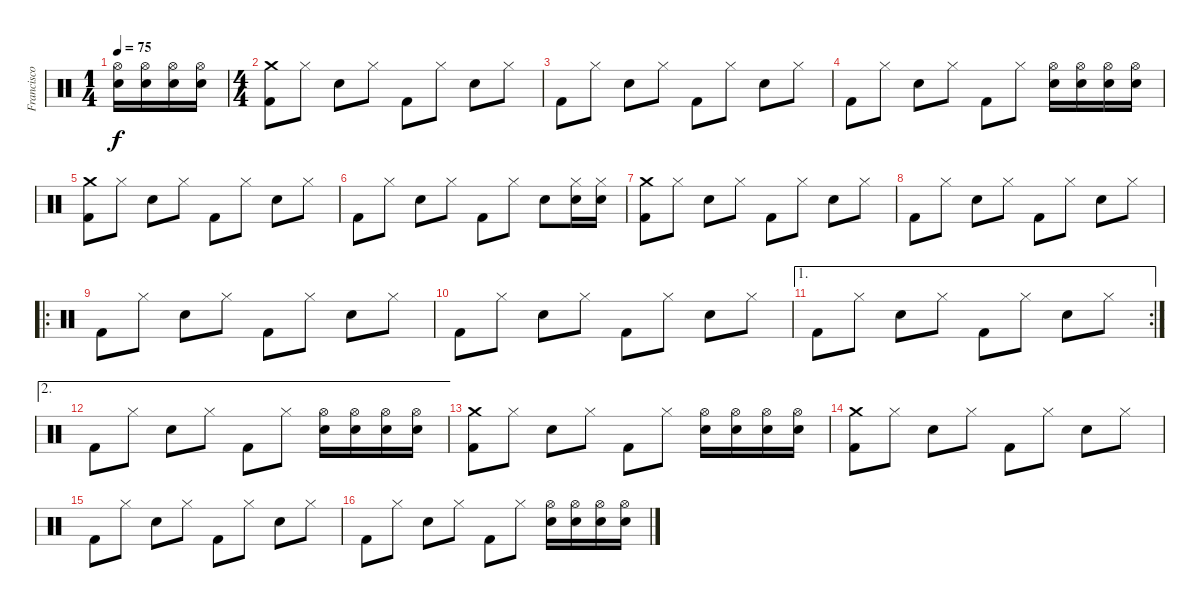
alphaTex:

\track ("Francisco (batería)" "Francisco ") {instrument percussion}
\staff {score}
\articulation defaults
\ts (1 4)
\tempo 75
\clef neutral
\ks c
("Hi-Hat (open)" "Snare (hit) 2").16{dy f} ("Hi-Hat (open)" "Snare (hit) 2").16 ("Hi-Hat (open)" "Snare (hit) 2").16 ("Hi-Hat (open)" "Snare (hit) 2").16 |
\ts (4 4)
("Crash medium (hit)" "Kick (hit) 2").8 "Hi-Hat (closed)".8 "Snare (hit) 2".8 "Hi-Hat (closed)".8 "Kick (hit) 2".8 "Hi-Hat (closed)".8 "Snare (hit) 2".8 "Hi-Hat (closed)".8 |
"Kick (hit) 2".8 "Hi-Hat (closed)".8 "Snare (hit) 2".8 "Hi-Hat (closed)".8 "Kick (hit) 2".8 "Hi-Hat (closed)".8 "Snare (hit) 2".8 "Hi-Hat (closed)".8 |
"Kick (hit) 2".8 "Hi-Hat (closed)".8 "Snare (hit) 2".8 "Hi-Hat (closed)".8 "Kick (hit) 2".8 "Hi-Hat (closed)".8 ("Hi-Hat (open)" "Snare (hit) 2").16 ("Hi-Hat (open)" "Snare (hit) 2").16 ("Hi-Hat (open)" "Snare (hit) 2").16 ("Hi-Hat (open)" "Snare (hit) 2").16 |
("Crash medium (hit)" "Kick (hit) 2").8 "Hi-Hat (closed)".8 "Snare (hit) 2".8 "Hi-Hat (closed)".8 "Kick (hit) 2".8 "Hi-Hat (closed)".8 "Snare (hit) 2".8 "Hi-Hat (closed)".8 |
"Kick (hit) 2".8 "Hi-Hat (closed)".8 "Snare (hit) 2".8 "Hi-Hat (closed)".8 "Kick (hit) 2".8 "Hi-Hat (closed)".8 "Snare (hit) 2".8 ("Hi-Hat (closed)" "Snare (hit) 2").16 ("Hi-Hat (closed)" "Snare (hit) 2").16 |
("Crash medium (hit)" "Kick (hit) 2").8 "Hi-Hat (closed)".8 "Snare (hit) 2".8 "Hi-Hat (closed)".8 "Kick (hit) 2".8 "Hi-Hat (closed)".8 "Snare (hit) 2".8 "Hi-Hat (closed)".8 |
"Kick (hit) 2".8 "Hi-Hat (closed)".8 "Snare (hit) 2".8 "Hi-Hat (closed)".8 "Kick (hit) 2".8 "Hi-Hat (closed)".8 "Snare (hit) 2".8 "Hi-Hat (closed)".8 |
\ro "Kick (hit) 2".8 "Hi-Hat (closed)".8 "Snare (hit) 2".8 "Hi-Hat (closed)".8 "Kick (hit) 2".8 "Hi-Hat (closed)".8 "Snare (hit) 2".8 "Hi-Hat (closed)".8
|
"Kick (hit) 2".8 "Hi-Hat (closed)".8 "Snare (hit) 2".8 "Hi-Hat (closed)".8 "Kick (hit) 2".8 "Hi-Hat (closed)".8 "Snare (hit) 2".8 "Hi-Hat (closed)".8 |
\ae 1
\rc 2 "Kick (hit) 2".8 "Hi-Hat (closed)".8 "Snare (hit) 2".8 "Hi-Hat (closed)".8 "Kick (hit) 2".8 "Hi-Hat (closed)".8 "Snare (hit) 2".8 "Hi-Hat (closed)".8
|
\ae 2 "Kick (hit) 2".8 "Hi-Hat (closed)".8 "Snare (hit) 2".8 "Hi-Hat (closed)".8 "Kick (hit) 2".8 "Hi-Hat (closed)".8
("Hi-Hat (open)" "Snare (hit) 2").16 ("Hi-Hat (open)" "Snare (hit) 2").16 ("Hi-Hat (open)" "Snare (hit) 2").16 ("Hi-Hat (open)" "Snare (hit) 2").16 |
("Crash medium (hit)" "Kick (hit) 2").8 "Hi-Hat (closed)".8 "Snare (hit) 2".8 "Hi-Hat (closed)".8 "Kick (hit) 2".8 "Hi-Hat (closed)".8 ("Hi-Hat (open)" "Snare (hit) 2").16 ("Hi-Hat (open)" "Snare (hit) 2").16 ("Hi-Hat (open)" "Snare (hit) 2").16 ("Hi-Hat (open)" "Snare (hit) 2").16 |
("Crash medium (hit)" "Kick (hit) 2").8 "Hi-Hat (closed)".8 "Snare (hit) 2".8 "Hi-Hat (closed)".8 "Kick (hit) 2".8 "Hi-Hat (closed)".8 "Snare (hit) 2".8 "Hi-Hat (closed)".8 |
"Kick (hit) 2".8 "Hi-Hat (closed)".8 "Snare (hit) 2".8 "Hi-Hat (closed)".8 "Kick (hit) 2".8 "Hi-Hat (closed)".8 "Snare (hit) 2".8 "Hi-Hat (closed)".8 |
"Kick (hit) 2".8 "Hi-Hat (closed)".8 "Snare (hit) 2".8 "Hi-Hat (closed)".8 "Kick (hit) 2".8 "Hi-Hat (closed)".8 ("Hi-Hat (open)" "Snare (hit) 2").16 ("Hi-Hat (open)" "Snare (hit) 2").16 ("Hi-Hat (open)" "Snare (hit) 2").16 ("Hi-Hat (open)" "Snare (hit) 2").16
